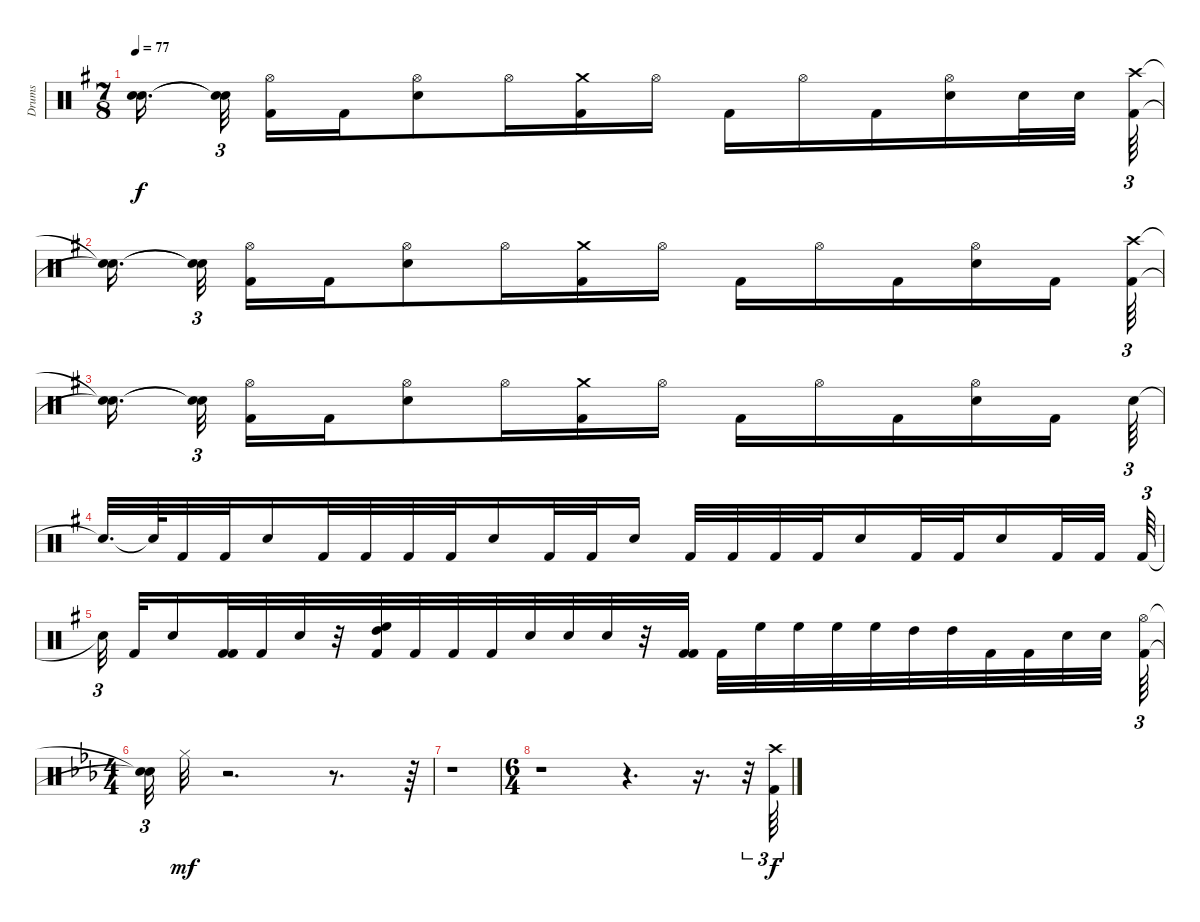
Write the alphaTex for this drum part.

\track ("Drums" "Drums") {instrument percussion}
\staff {score}
\articulation defaults
\ts (7 8)
\tempo 77
\clef neutral
\ks g
("Snare (hit)"{t} "Snare (hit)"{t}).16{d dy f beam splitsecondary} ("Snare (hit)"{t} "Snare (hit)"{t}).32{tu (3 2)} ("Hi-Hat (open)" "Kick (hit) 2").16 "Kick (hit) 2".16 ("Hi-Hat (open)" "Electric Snare (hit)").8 "Hi-Hat (open)".16 ("Kick (hit) 2" "Crash medium (hit)").16 "Hi-Hat (open)".16 "Kick (hit) 2".16 "Hi-Hat (open)".16 "Kick (hit) 2".16 ("Hi-Hat (open)" "Electric Snare (hit)").16 "Electric Snare (hit)".32 "Electric Snare (hit)".32{beam splitsecondary} ("Crash high (hit)" "Kick (hit) 2").64{tu (3 2)} |
("Snare (hit)"{t} "Snare (hit)"{t}).16{d beam splitsecondary} ("Snare (hit)"{t} "Snare (hit)"{t}).32{tu (3 2)} ("Hi-Hat (open)" "Kick (hit) 2").16 "Kick (hit) 2".16 ("Hi-Hat (open)" "Electric Snare (hit)").8 "Hi-Hat (open)".16 ("Kick (hit) 2" "Crash medium (hit)").16 "Hi-Hat (open)".16 "Kick (hit) 2".16 "Hi-Hat (open)".16 "Kick (hit) 2".16 ("Hi-Hat (open)" "Electric Snare (hit)").16 "Kick (hit) 2".16 ("Crash high (hit)" "Kick (hit) 2").64{tu (3 2)} |
("Snare (hit)"{t} "Snare (hit)"{t}).16{d beam splitsecondary} ("Snare (hit)"{t} "Snare (hit)"{t}).32{tu (3 2)} ("Hi-Hat (open)" "Kick (hit) 2").16 "Kick (hit) 2".16 ("Hi-Hat (open)" "Electric Snare (hit)").8 "Hi-Hat (open)".16 ("Kick (hit) 2" "Crash medium (hit)").16 "Hi-Hat (open)".16 "Kick (hit) 2".16 "Hi-Hat (open)".16 "Kick (hit) 2".16 ("Hi-Hat (open)" "Electric Snare (hit)").16 "Kick (hit) 2".16 "Electric Snare (hit)".64{tu (3 2)} |
"Snare (hit)"{t}.32{d} "Snare (hit)"{t}.64 "Kick (hit) 2".32 "Kick (hit) 2".32 "Electric Snare (hit)".16 "Kick (hit) 2".32 "Kick (hit) 2".32 "Kick (hit) 2".32 "Kick (hit) 2".32 "Electric Snare (hit)".16 "Kick (hit) 2".32 "Kick (hit) 2".32 "Electric Snare (hit)".16 "Kick (hit) 2".32 "Kick (hit) 2".32 "Kick (hit) 2".32 "Kick (hit) 2".32 "Electric Snare (hit)".16 "Kick (hit) 2".32 "Kick (hit) 2".32 "Electric Snare (hit)".16 "Kick (hit) 2".32 "Kick (hit) 2".32 "Kick (hit) 2".64{tu (3 2)} |
"Snare (hit)"{t}.32{tu (3 2) beam splitsecondary} "Kick (hit) 2".32 "Electric Snare (hit)".16 ("Kick (hit) 2" "Kick (hit) 2").32 "Kick (hit) 2".32 "Electric Snare (hit)".32 r.32 ("High Floor Tom (hit)" "Kick (hit) 2" "High Tom (hit)").32 "Kick (hit) 2".32 "Kick (hit) 2".32 "Kick (hit) 2".32 "Electric Snare (hit)".32 "Electric Snare (hit)".32 "Electric Snare (hit)".32 r.32 ("Kick (hit) 2" "Kick (hit) 2").32 "Kick (hit) 2".32 "High Floor Tom (hit)".32 "High Floor Tom (hit)".32 "High Floor Tom (hit)".32 "High Floor Tom (hit)".32 "High Tom (hit)".32 "High Tom (hit)".32 "Kick (hit) 2".32 "Kick (hit) 2".32 "Electric Snare (hit)".32 "Electric Snare (hit)".32{beam splitsecondary} ("Kick (hit) 2" "Hi-Hat (open)").64{tu (3 2)} |
\ts (4 4)
\ks cminor
("Snare (hit)"{t} "Snare (hit)"{t}).32{tu (3 2)} "Hi-Hat (closed)".32{dy mf} r.2{d} r.8{d} r.64{tu (3 2)} |
r.1 |
\ts (6 4)
r.1 r.4{d} r.16{d} r.32{tu (3 2)} ("Kick (hit) 2" "Crash high (hit)").64{tu (3 2) dy f}
